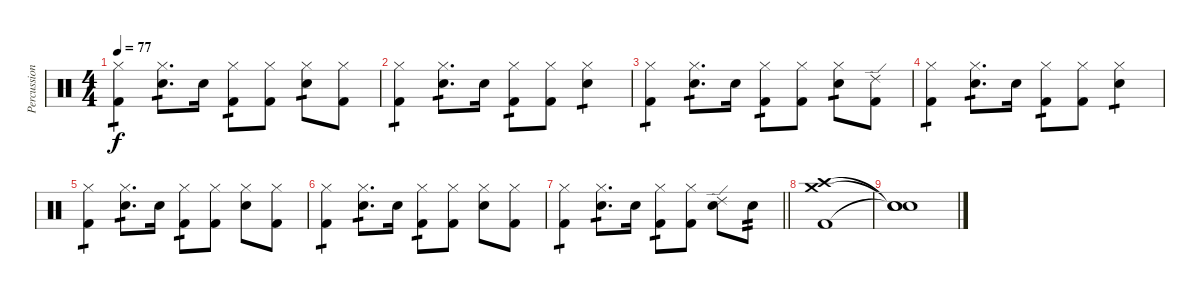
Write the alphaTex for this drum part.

\track ("Percussion" "Percussion") {instrument percussion}
\staff {score}
\articulation defaults
\ts (4 4)
\tempo 77
\clef neutral
\ks c
("Kick (hit) 2" "Hi-Hat (closed)").4{tp 1 dy f} ("Electric Snare (hit)" "Hi-Hat (closed)").8{d tp 1} "Electric Snare (hit)".16 ("Kick (hit) 2" "Hi-Hat (closed)").8{tp 1} ("Kick (hit) 2" "Hi-Hat (closed)").8 ("Electric Snare (hit)" "Hi-Hat (closed)").8{tp 1} ("Kick (hit) 2" "Hi-Hat (closed)").8 |
("Kick (hit) 2" "Hi-Hat (closed)").4{tp 1} ("Electric Snare (hit)" "Hi-Hat (closed)").8{d tp 1} "Electric Snare (hit)".16 ("Kick (hit) 2" "Hi-Hat (closed)").8{tp 1} ("Kick (hit) 2" "Hi-Hat (closed)").8 ("Electric Snare (hit)" "Hi-Hat (closed)").4{tp 1} |
("Kick (hit) 2" "Hi-Hat (closed)").4{tp 1} ("Electric Snare (hit)" "Hi-Hat (closed)").8{d tp 1} "Electric Snare (hit)".16 ("Kick (hit) 2" "Hi-Hat (closed)").8{tp 1} ("Kick (hit) 2" "Hi-Hat (closed)").8 ("Electric Snare (hit)" "Hi-Hat (closed)").8{tp 1} ("Kick (hit) 2" "Ride (edge) 2").8 |
("Kick (hit) 2" "Hi-Hat (closed)").4{tp 1} ("Electric Snare (hit)" "Hi-Hat (closed)").8{d tp 1} "Electric Snare (hit)".16 ("Kick (hit) 2" "Hi-Hat (closed)").8{tp 1} ("Kick (hit) 2" "Hi-Hat (closed)").8 ("Electric Snare (hit)" "Hi-Hat (closed)").4{tp 1} |
("Kick (hit) 2" "Hi-Hat (closed)").4{tp 1} ("Electric Snare (hit)" "Hi-Hat (closed)").8{d tp 1} "Electric Snare (hit)".16 ("Kick (hit) 2" "Hi-Hat (closed)").8{tp 1} ("Kick (hit) 2" "Hi-Hat (closed)").8 ("Electric Snare (hit)" "Hi-Hat (closed)").8 ("Kick (hit) 2" "Hi-Hat (closed)").8 |
("Kick (hit) 2" "Hi-Hat (closed)").4{tp 1} ("Electric Snare (hit)" "Hi-Hat (closed)").8{d tp 1} "Electric Snare (hit)".16 ("Kick (hit) 2" "Hi-Hat (closed)").8{tp 1} ("Kick (hit) 2" "Hi-Hat (closed)").8 ("Electric Snare (hit)" "Hi-Hat (closed)").8 ("Kick (hit) 2" "Hi-Hat (closed)").8 |
\barLineRight lightlight
("Kick (hit) 2" "Hi-Hat (closed)").4{tp 1} ("Electric Snare (hit)" "Hi-Hat (closed)").8{d tp 1} "Electric Snare (hit)".16 ("Kick (hit) 2" "Hi-Hat (closed)").8{tp 1} ("Kick (hit) 2" "Hi-Hat (closed)").8 ("Electric Snare (hit)" "Ride (edge) 2").8 "Electric Snare (hit)".8{tp 2} |
("Kick (hit) 2" "Crash high (hit)" "Crash medium (hit)").1 |
("Snare (hit)"{t} "Snare (hit)"{t} "Snare (hit)"{t}).1
